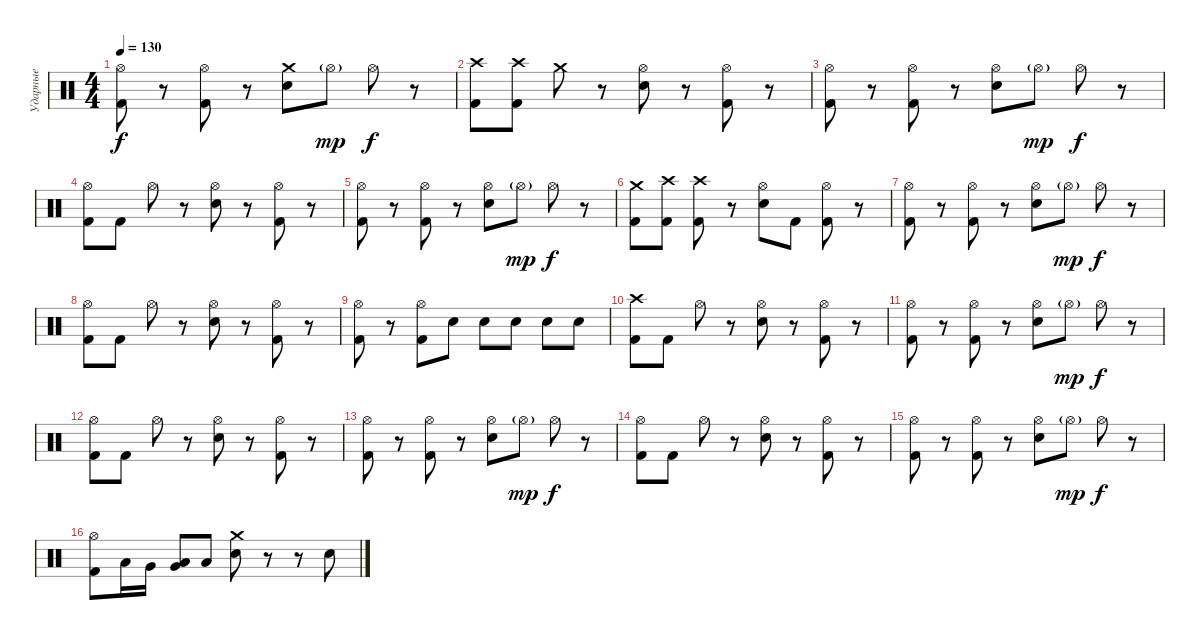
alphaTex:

\track ("Ударные" "Ударные") {instrument percussion}
\staff {score}
\articulation defaults
\ts (4 4)
\tempo 130
\clef neutral
\ks c
("Hi-Hat (open)" "Kick (hit) 2").8{dy f} r.8 ("Hi-Hat (open)" "Kick (hit) 2").8 r.8 ("Crash medium (hit)" "Snare (hit) 2").8 "Hi-Hat (open)"{g}.8{dy mp} "Hi-Hat (open)".8{dy f} r.8 |
("Crash high (hit)" "Kick (hit) 2").8 ("Crash high (hit)" "Kick (hit) 2").8 "Crash medium (hit)".8 r.8 ("Hi-Hat (open)" "Snare (hit) 2").8 r.8 ("Hi-Hat (open)" "Kick (hit) 2").8 r.8 |
("Hi-Hat (open)" "Kick (hit) 2").8 r.8 ("Hi-Hat (open)" "Kick (hit) 2").8 r.8 ("Hi-Hat (open)" "Snare (hit) 2").8 "Hi-Hat (open)"{g}.8{dy mp} "Hi-Hat (open)".8{dy f} r.8 |
("Hi-Hat (open)" "Kick (hit) 2").8 "Kick (hit) 2".8 "Hi-Hat (open)".8 r.8 ("Hi-Hat (open)" "Snare (hit) 2").8 r.8 ("Hi-Hat (open)" "Kick (hit) 2").8 r.8 |
("Hi-Hat (open)" "Kick (hit) 2").8 r.8 ("Hi-Hat (open)" "Kick (hit) 2").8 r.8 ("Hi-Hat (open)" "Snare (hit) 2").8 "Hi-Hat (open)"{g}.8{dy mp} "Hi-Hat (open)".8{dy f} r.8 |
("Crash medium (hit)" "Kick (hit) 2").8 ("Crash high (hit)" "Kick (hit) 2").8 ("Crash high (hit)" "Kick (hit) 2").8 r.8 ("Hi-Hat (open)" "Snare (hit) 2").8 "Kick (hit) 2".8 ("Hi-Hat (open)" "Kick (hit) 2").8 r.8 |
("Hi-Hat (open)" "Kick (hit) 2").8 r.8 ("Hi-Hat (open)" "Kick (hit) 2").8 r.8 ("Hi-Hat (open)" "Snare (hit) 2").8 "Hi-Hat (open)"{g}.8{dy mp} "Hi-Hat (open)".8{dy f} r.8 |
("Hi-Hat (open)" "Kick (hit) 2").8 "Kick (hit) 2".8 "Hi-Hat (open)".8 r.8 ("Hi-Hat (open)" "Snare (hit) 2").8 r.8 ("Hi-Hat (open)" "Kick (hit) 2").8 r.8 |
("Hi-Hat (open)" "Kick (hit) 2").8 r.8 ("Hi-Hat (open)" "Kick (hit) 2").8 "Snare (hit) 2".8 "Snare (hit) 2".8 "Snare (hit) 2".8 "Snare (hit) 2".8 "Snare (hit) 2".8 |
("Crash high (hit)" "Kick (hit) 2").8 "Kick (hit) 2".8 "Hi-Hat (open)".8 r.8 ("Hi-Hat (open)" "Snare (hit) 2").8 r.8 ("Hi-Hat (open)" "Kick (hit) 2").8 r.8 |
("Hi-Hat (open)" "Kick (hit) 2").8 r.8 ("Hi-Hat (open)" "Kick (hit) 2").8 r.8 ("Hi-Hat (open)" "Snare (hit) 2").8 "Hi-Hat (open)"{g}.8{dy mp} "Hi-Hat (open)".8{dy f} r.8 |
("Hi-Hat (open)" "Kick (hit) 2").8 "Kick (hit) 2".8 "Hi-Hat (open)".8 r.8 ("Hi-Hat (open)" "Snare (hit) 2").8 r.8 ("Hi-Hat (open)" "Kick (hit) 2").8 r.8 |
("Hi-Hat (open)" "Kick (hit) 2").8 r.8 ("Hi-Hat (open)" "Kick (hit) 2").8 r.8 ("Hi-Hat (open)" "Snare (hit) 2").8 "Hi-Hat (open)"{g}.8{dy mp} "Hi-Hat (open)".8{dy f} r.8 |
("Hi-Hat (open)" "Kick (hit) 2").8 "Kick (hit) 2".8 "Hi-Hat (open)".8 r.8 ("Hi-Hat (open)" "Snare (hit) 2").8 r.8 ("Hi-Hat (open)" "Kick (hit) 2").8 r.8 |
("Hi-Hat (open)" "Kick (hit) 2").8 r.8 ("Hi-Hat (open)" "Kick (hit) 2").8 r.8 ("Hi-Hat (open)" "Snare (hit) 2").8 "Hi-Hat (open)"{g}.8{dy mp} "Hi-Hat (open)".8{dy f} r.8 |
("Hi-Hat (open)" "Kick (hit) 2").8 "Low Tom (hit)".16 "Very Low Tom (hit)".16 ("Very Low Tom (hit)" "Low Tom (hit)").8 "Low Floor Tom (hit)".8 ("Crash medium (hit)" "Snare (hit) 2").8 r.8 r.8 "Snare (hit) 2".8
